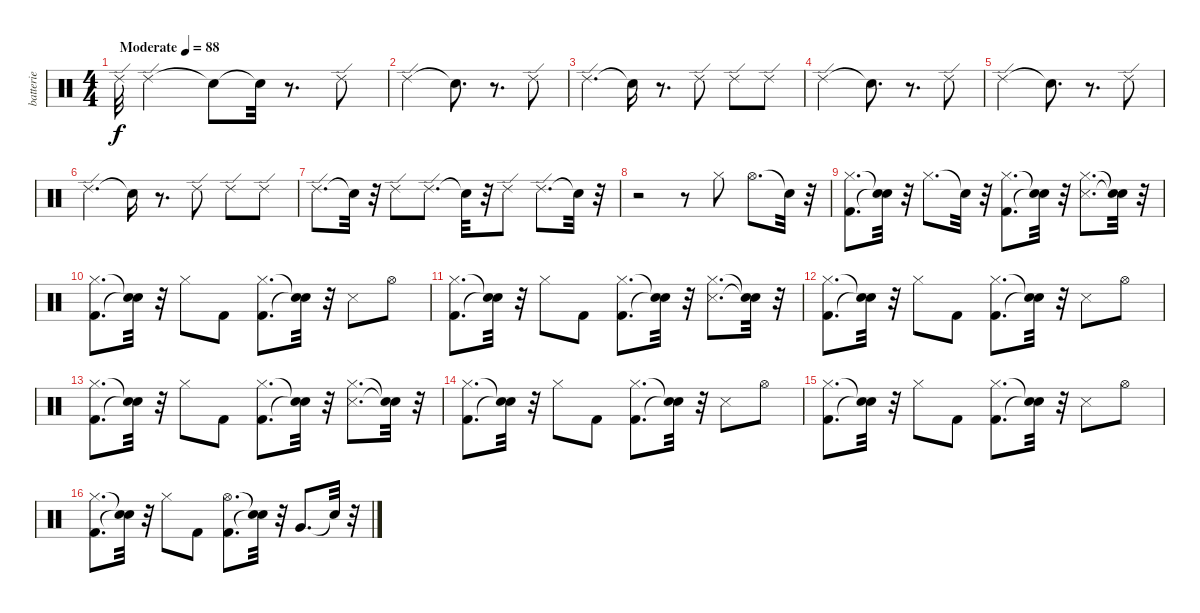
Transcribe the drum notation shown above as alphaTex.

\track ("batterie" "batterie") {instrument percussion}
\staff {score}
\articulation defaults
\ts (4 4)
\tempo (88 "Moderate")
\clef neutral
\ks c "Ride (edge) 2".32{dy f} "Ride (edge) 2".2 "Snare (hit)"{t}.8 "Snare (hit)"{t}.32
r.8{d} "Ride (edge) 2".8 |
"Ride (edge) 2".2 "Snare (hit)"{t}.8{d} r.8{d} "Ride (edge) 2".8 |
"Ride (edge) 2".4{d} "Snare (hit)"{t}.16 r.8{d} "Ride (edge) 2".8 "Ride (edge) 2".8 "Ride (edge) 2".8 |
"Ride (edge) 2".2 "Snare (hit)"{t}.8{d} r.8{d} "Ride (edge) 2".8 |
"Ride (edge) 2".2 "Snare (hit)"{t}.8{d} r.8{d} "Ride (edge) 2".8 |
"Ride (edge) 2".4{d} "Snare (hit)"{t}.16 r.8{d} "Ride (edge) 2".8 "Ride (edge) 2".8 "Ride (edge) 2".8 |
"Ride (edge) 2".8{d} "Snare (hit)"{t}.32 r.32 "Ride (edge) 2".8 "Ride (edge) 2".8{d} "Snare (hit)"{t}.32 r.32 "Ride (edge) 2".8 "Ride (edge) 2".8{d} "Snare (hit)"{t}.32 r.32 |
r.2 r.8 "Hi-Hat (closed)".8 "Hi-Hat (open)".8{d} "Snare (hit)"{t}.32 r.32 |
("Kick (hit) 2" "Hi-Hat (closed)").8{d} ("Snare (hit)"{t} "Snare (hit)"{t}).32 r.32 "Hi-Hat (closed)".8{d} "Snare (hit)"{t}.32 r.32 ("Kick (hit) 2" "Hi-Hat (closed)").8{d} ("Snare (hit)"{t} "Snare (hit)"{t}).32 r.32 ("Snare (side stick) 3" "Hi-Hat (closed)").8{d} ("Snare (hit)"{t} "Snare (hit)"{t}).32 r.32 |
("Kick (hit) 2" "Hi-Hat (closed)").8{d} ("Snare (hit)"{t} "Snare (hit)"{t}).32 r.32 "Hi-Hat (closed)".8 "Kick (hit) 2".8 ("Kick (hit) 2" "Hi-Hat (closed)").8{d} ("Snare (hit)"{t} "Snare (hit)"{t}).32 r.32 "Snare (side stick) 3".8 "Hi-Hat (open)".8 |
("Kick (hit) 2" "Hi-Hat (closed)").8{d} ("Snare (hit)"{t} "Snare (hit)"{t}).32 r.32 "Hi-Hat (closed)".8 "Kick (hit) 2".8 ("Kick (hit) 2" "Hi-Hat (closed)").8{d} ("Snare (hit)"{t} "Snare (hit)"{t}).32 r.32 ("Snare (side stick) 3" "Hi-Hat (closed)").8{d} ("Snare (hit)"{t} "Snare (hit)"{t}).32 r.32 |
("Kick (hit) 2" "Hi-Hat (closed)").8{d} ("Snare (hit)"{t} "Snare (hit)"{t}).32 r.32 "Hi-Hat (closed)".8 "Kick (hit) 2".8 ("Kick (hit) 2" "Hi-Hat (closed)").8{d} ("Snare (hit)"{t} "Snare (hit)"{t}).32 r.32 "Snare (side stick) 3".8 "Hi-Hat (open)".8 |
("Kick (hit) 2" "Hi-Hat (closed)").8{d} ("Snare (hit)"{t} "Snare (hit)"{t}).32 r.32 "Hi-Hat (closed)".8 "Kick (hit) 2".8 ("Kick (hit) 2" "Hi-Hat (closed)").8{d} ("Snare (hit)"{t} "Snare (hit)"{t}).32 r.32 ("Snare (side stick) 3" "Hi-Hat (closed)").8{d} ("Snare (hit)"{t} "Snare (hit)"{t}).32 r.32 |
("Kick (hit) 2" "Hi-Hat (closed)").8{d} ("Snare (hit)"{t} "Snare (hit)"{t}).32 r.32 "Hi-Hat (closed)".8 "Kick (hit) 2".8 ("Kick (hit) 2" "Hi-Hat (closed)").8{d} ("Snare (hit)"{t} "Snare (hit)"{t}).32 r.32 "Snare (side stick) 3".8 "Hi-Hat (open)".8 |
("Kick (hit) 2" "Hi-Hat (closed)").8{d} ("Snare (hit)"{t} "Snare (hit)"{t}).32 r.32 "Hi-Hat (closed)".8 "Kick (hit) 2".8 ("Kick (hit) 2" "Hi-Hat (closed)").8{d} ("Snare (hit)"{t} "Snare (hit)"{t}).32 r.32 "Snare (side stick) 3".8 "Hi-Hat (open)".8 |
("Kick (hit) 2" "Hi-Hat (closed)").8{d} ("Snare (hit)"{t} "Snare (hit)"{t}).32 r.32 "Hi-Hat (closed)".8 "Kick (hit) 2".8 ("Kick (hit) 2" "Hi-Hat (open)").8{d} ("Snare (hit)"{t} "Snare (hit)"{t}).32 r.32 "Very Low Tom (hit)".8{d} "Snare (hit)"{t}.32 r.32
